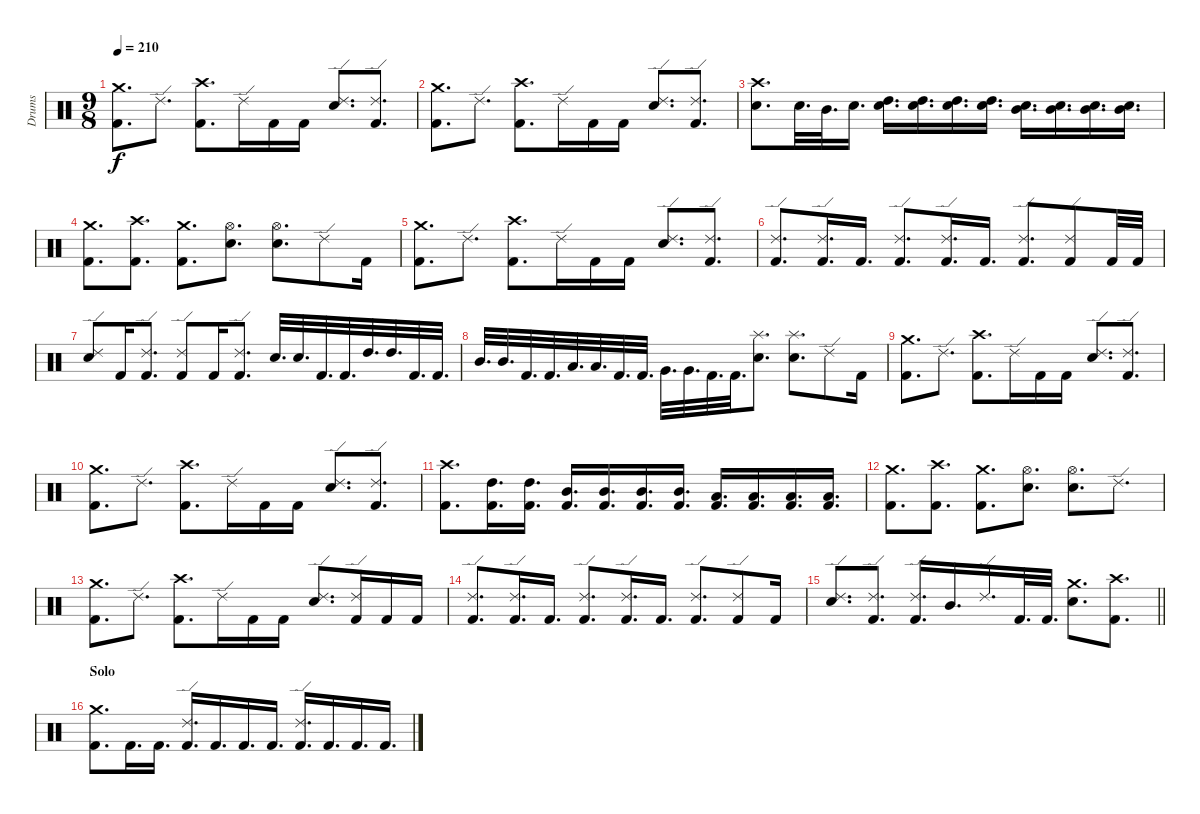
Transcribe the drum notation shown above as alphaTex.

\track ("Drums" "Drums") {instrument percussion}
\staff {score}
\articulation defaults
\ts (9 8)
\tempo 210
\clef neutral
\ks c
("Crash medium (hit)" "Kick (hit) 2").8{d dy f} "Ride (edge) 2".8{d} ("Crash high (hit)" "Kick (hit) 2").8{d} "Ride (edge) 2".16 "Kick (hit) 2".16 "Kick (hit) 2".16 ("Ride (edge) 2" "Electric Snare (hit)").8{d} ("Ride (edge) 2" "Kick (hit) 2").8{d} |
("Crash medium (hit)" "Kick (hit) 2").8{d} "Ride (edge) 2".8{d} ("Crash high (hit)" "Kick (hit) 2").8{d} "Ride (edge) 2".16 "Kick (hit) 2".16 "Kick (hit) 2".16 ("Ride (edge) 2" "Electric Snare (hit)").8{d} ("Ride (edge) 2" "Kick (hit) 2").8{d} |
("Crash high (hit)" "Electric Snare (hit)").8{d} "Electric Snare (hit)".32{d} "Mid Tom (hit)".32{d} "Electric Snare (hit)".16{d} ("High Tom (hit)" "Electric Snare (hit)").16{d} ("High Tom (hit)" "Electric Snare (hit)").16{d} ("High Tom (hit)" "Electric Snare (hit)").16{d} ("High Tom (hit)" "Electric Snare (hit)").16{d} ("Mid Tom (hit)" "Electric Snare (hit)").16{d} ("Mid Tom (hit)" "Electric Snare (hit)").16{d} ("Mid Tom (hit)" "Electric Snare (hit)").16{d} ("Mid Tom (hit)" "Electric Snare (hit)").16{d} |
("Crash medium (hit)" "Kick (hit) 2").8{d} ("Crash high (hit)" "Kick (hit) 2").8{d} ("Crash medium (hit)" "Kick (hit) 2").8{d} ("Hi-Hat (open)" "Electric Snare (hit)").8{d} ("Hi-Hat (open)" "Electric Snare (hit)").8{d} "Ride (edge) 2".8 "Kick (hit) 2".16 |
("Crash medium (hit)" "Kick (hit) 2").8{d} "Ride (edge) 2".8{d} ("Crash high (hit)" "Kick (hit) 2").8{d} "Ride (edge) 2".16 "Kick (hit) 2".16 "Kick (hit) 2".16 ("Ride (edge) 2" "Electric Snare (hit)").8{d} ("Ride (edge) 2" "Kick (hit) 2").8{d} |
("Ride (edge) 2" "Kick (hit) 2").8{d} ("Ride (edge) 2" "Kick (hit) 2").16{d} "Kick (hit) 2".16{d} ("Ride (edge) 2" "Kick (hit) 2").8{d} ("Ride (edge) 2" "Kick (hit) 2").16{d} "Kick (hit) 2".16{d} ("Ride (edge) 2" "Kick (hit) 2").8{d} ("Ride (edge) 2" "Kick (hit) 2").8 "Kick (hit) 2".32 "Kick (hit) 2".32 |
("Ride (edge) 2" "Electric Snare (hit)").8 "Kick (hit) 2".16 ("Ride (edge) 2" "Kick (hit) 2").8{d} ("Ride (edge) 2" "Kick (hit) 2").8 "Kick (hit) 2".16 ("Ride (edge) 2" "Kick (hit) 2").8{d} "Electric Snare (hit)".32{d} "Electric Snare (hit)".32{d} "Kick (hit) 2".32{d} "Kick (hit) 2".32{d} "High Tom (hit)".32{d} "High Tom (hit)".32{d} "Kick (hit) 2".32{d} "Kick (hit) 2".32{d} |
"Mid Tom (hit)".32{d} "Mid Tom (hit)".32{d} "Kick (hit) 2".32{d} "Kick (hit) 2".32{d} "Low Tom (hit)".32{d} "Low Tom (hit)".32{d} "Kick (hit) 2".32{d} "Kick (hit) 2".32{d} "Very Low Tom (hit)".32{d} "Very Low Tom (hit)".32{d} "Kick (hit) 2".32{d} "Kick (hit) 2".32{d} ("Splash (hit)" "Electric Snare (hit)").8{d} ("Splash (hit)" "Electric Snare (hit)").8{d} "Ride (edge) 2".8 "Kick (hit) 2".16 |
("Crash medium (hit)" "Kick (hit) 2").8{d} "Ride (edge) 2".8{d} ("Crash high (hit)" "Kick (hit) 2").8{d} "Ride (edge) 2".16 "Kick (hit) 2".16 "Kick (hit) 2".16 ("Ride (edge) 2" "Electric Snare (hit)").8{d} ("Ride (edge) 2" "Kick (hit) 2").8{d} |
("Crash medium (hit)" "Kick (hit) 2").8{d} "Ride (edge) 2".8{d} ("Crash high (hit)" "Kick (hit) 2").8{d} "Ride (edge) 2".16 "Kick (hit) 2".16 "Kick (hit) 2".16 ("Ride (edge) 2" "Electric Snare (hit)").8{d} ("Ride (edge) 2" "Kick (hit) 2").8{d} |
("Crash high (hit)" "Kick (hit) 2").8{d} ("High Tom (hit)" "Kick (hit) 2").16{d} ("High Tom (hit)" "Kick (hit) 2").16{d} ("Mid Tom (hit)" "Kick (hit) 2").16{d} ("Mid Tom (hit)" "Kick (hit) 2").16{d} ("Mid Tom (hit)" "Kick (hit) 2").16{d} ("Mid Tom (hit)" "Kick (hit) 2").16{d} ("Low Tom (hit)" "Kick (hit) 2").16{d} ("Low Tom (hit)" "Kick (hit) 2").16{d} ("Low Tom (hit)" "Kick (hit) 2").16{d} ("Low Tom (hit)" "Kick (hit) 2").16{d} |
("Crash medium (hit)" "Kick (hit) 2").8{d} ("Crash high (hit)" "Kick (hit) 2").8{d} ("Crash medium (hit)" "Kick (hit) 2").8{d} ("Hi-Hat (open)" "Electric Snare (hit)").8{d} ("Hi-Hat (open)" "Electric Snare (hit)").8{d} "Ride (edge) 2".8{d} |
("Crash medium (hit)" "Kick (hit) 2").8{d} "Ride (edge) 2".8{d} ("Crash high (hit)" "Kick (hit) 2").8{d} "Ride (edge) 2".16 "Kick (hit) 2".16 "Kick (hit) 2".16 ("Ride (edge) 2" "Electric Snare (hit)").8{d} ("Ride (edge) 2" "Kick (hit) 2").16 "Kick (hit) 2".16 "Kick (hit) 2".16 |
("Ride (edge) 2" "Kick (hit) 2").8{d} ("Ride (edge) 2" "Kick (hit) 2").16{d} "Kick (hit) 2".16{d} ("Ride (edge) 2" "Kick (hit) 2").8{d} ("Ride (edge) 2" "Kick (hit) 2").16{d} "Kick (hit) 2".16{d} ("Ride (edge) 2" "Kick (hit) 2").8{d} ("Ride (edge) 2" "Kick (hit) 2").8 "Kick (hit) 2".16 |
\barLineRight lightlight
("Ride (edge) 2" "Electric Snare (hit)").8{d} ("Ride (edge) 2" "Kick (hit) 2").8{d} ("Ride (edge) 2" "Kick (hit) 2").16{d} "Mid Tom (hit)".16{d} "Ride (edge) 2".16{d} "Kick (hit) 2".32{d} "Kick (hit) 2".32{d} ("Crash medium (hit)" "Electric Snare (hit)").8{d} ("Crash high (hit)" "Kick (hit) 2").8{d} |
\section ("" "Solo")
("Crash medium (hit)" "Kick (hit) 2").8{d} "Kick (hit) 2".16{d} "Kick (hit) 2".16{d} ("Ride (edge) 2" "Kick (hit) 2").16{d} "Kick (hit) 2".16{d} "Kick (hit) 2".16{d} "Kick (hit) 2".16{d} ("Ride (edge) 2" "Kick (hit) 2").16{d} "Kick (hit) 2".16{d} "Kick (hit) 2".16{d} "Kick (hit) 2".16{d}
